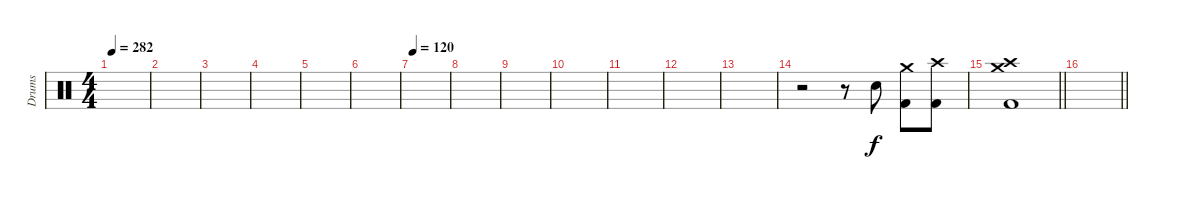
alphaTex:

\track ("Drums" "Drums") {instrument percussion}
\staff {score}
\articulation defaults
\ts (4 4)
\tempo 282
\clef neutral
\ks c
|
|
|
|
|
|
\tempo 120
|
|
|
|
|
|
|
r.2 r.8 "Snare (hit) 2".8 ("Crash medium (hit)" "Kick (hit) 2").8 ("Crash high (hit)" "Kick (hit) 2").8 |
\barLineRight lightlight
("Crash high (hit)" "Crash medium (hit)" "Kick (hit) 2").1 |
\barLineRight lightlight
